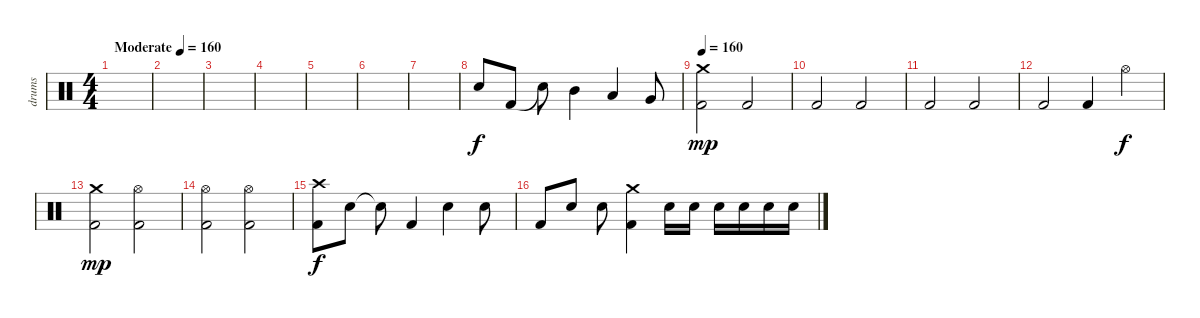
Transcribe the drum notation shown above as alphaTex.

\track ("drums" "drums") {instrument percussion}
\staff {score}
\articulation defaults
\ts (4 4)
\tempo (160 "Moderate")
\clef neutral
\ks c
|
|
|
|
|
|
|
"Electric Snare (hit)".8 "Kick (hit) 2".8 "Snare (hit)"{t}.8 "Mid Tom (hit)".4 "Low Tom (hit)".4 "Very Low Tom (hit)".8 |
\tempo 160
("Crash medium (hit)" "Kick (hit) 2").2{dy mp} "Kick (hit) 2".2 |
"Kick (hit) 2".2 "Kick (hit) 2".2 |
"Kick (hit) 2".2 "Kick (hit) 2".2 |
"Kick (hit) 2".2 "Kick (hit) 2".4 "Hi-Hat (open)".4{dy f} |
("Crash medium (hit)" "Kick (hit) 2").2{dy mp} ("Hi-Hat (open)" "Kick (hit) 2").2 |
("Hi-Hat (open)" "Kick (hit) 2").2 ("Hi-Hat (open)" "Kick (hit) 2").2 |
("Crash high (hit)" "Kick (hit) 2").8{dy f} "Electric Snare (hit)".8 "Snare (hit)"{t}.8 "Kick (hit) 2".4 "Electric Snare (hit)".4 "Electric Snare (hit)".8 |
"Kick (hit) 2".8 "Electric Snare (hit)".8 "Electric Snare (hit)".8 ("Crash medium (hit)" "Kick (hit) 2").4 "Electric Snare (hit)".16 "Electric Snare (hit)".16 "Electric Snare (hit)".16 "Electric Snare (hit)".16 "Electric Snare (hit)".16 "Electric Snare (hit)".16
